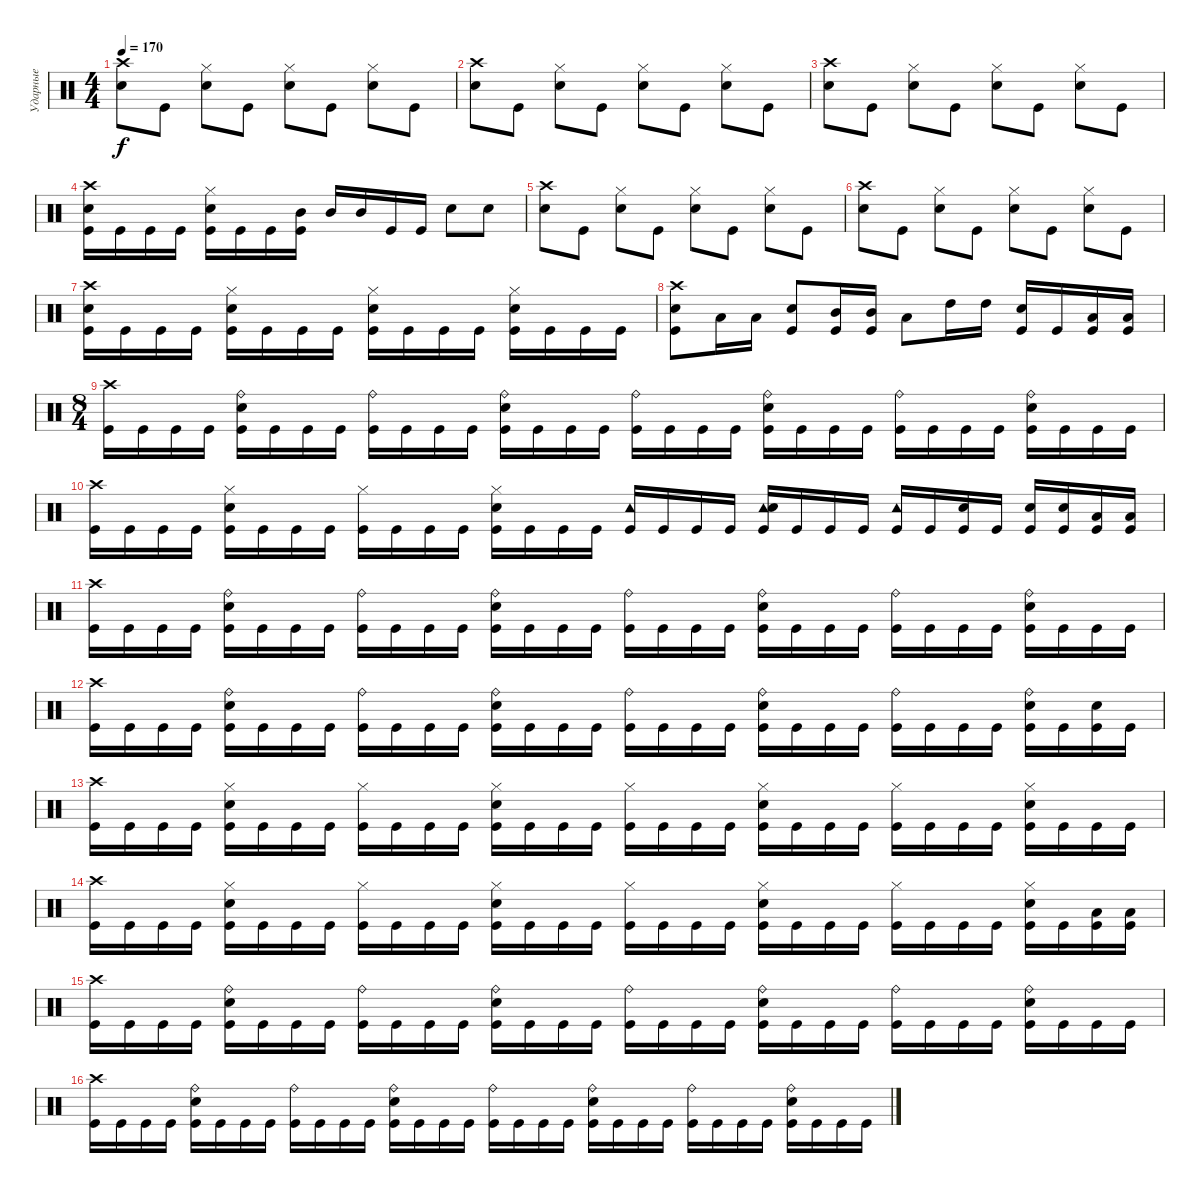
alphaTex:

\track ("Ударные" "Ударные") {instrument percussion}
\staff {score}
\articulation defaults
\ts (4 4)
\tempo 170
\clef neutral
\ks c
("Crash high (hit)" "Electric Snare (hit)").8{dy f} "Kick (hit)".8 ("Hi-Hat (closed)" "Electric Snare (hit)").8 "Kick (hit)".8 ("Hi-Hat (closed)" "Electric Snare (hit)").8 "Kick (hit)".8 ("Hi-Hat (closed)" "Electric Snare (hit)").8 "Kick (hit)".8 |
("Crash high (hit)" "Electric Snare (hit)").8 "Kick (hit)".8 ("Hi-Hat (closed)" "Electric Snare (hit)").8 "Kick (hit)".8 ("Hi-Hat (closed)" "Electric Snare (hit)").8 "Kick (hit)".8 ("Hi-Hat (closed)" "Electric Snare (hit)").8 "Kick (hit)".8 |
("Crash high (hit)" "Electric Snare (hit)").8 "Kick (hit)".8 ("Hi-Hat (closed)" "Electric Snare (hit)").8 "Kick (hit)".8 ("Hi-Hat (closed)" "Electric Snare (hit)").8 "Kick (hit)".8 ("Hi-Hat (closed)" "Electric Snare (hit)").8 "Kick (hit)".8 |
("Crash high (hit)" "Electric Snare (hit)" "Kick (hit)").16 "Kick (hit)".16 "Kick (hit)".16 "Kick (hit)".16 ("Hi-Hat (closed)" "Electric Snare (hit)" "Kick (hit)").16 "Kick (hit)".16 "Kick (hit)".16 ("Mid Tom (hit)" "Kick (hit)").16 "Mid Tom (hit)".16 "Mid Tom (hit)".16 "Kick (hit)".16 "Kick (hit)".16 "Electric Snare (hit)".8 "Electric Snare (hit)".8 |
("Crash high (hit)" "Electric Snare (hit)").8 "Kick (hit)".8 ("Hi-Hat (closed)" "Electric Snare (hit)").8 "Kick (hit)".8 ("Hi-Hat (closed)" "Electric Snare (hit)").8 "Kick (hit)".8 ("Hi-Hat (closed)" "Electric Snare (hit)").8 "Kick (hit)".8 |
("Crash high (hit)" "Electric Snare (hit)").8 "Kick (hit)".8 ("Hi-Hat (closed)" "Electric Snare (hit)").8 "Kick (hit)".8 ("Hi-Hat (closed)" "Electric Snare (hit)").8 "Kick (hit)".8 ("Hi-Hat (closed)" "Electric Snare (hit)").8 "Kick (hit)".8 |
("Crash high (hit)" "Electric Snare (hit)" "Kick (hit)").16 "Kick (hit)".16 "Kick (hit)".16 "Kick (hit)".16 ("Hi-Hat (closed)" "Electric Snare (hit)" "Kick (hit)").16 "Kick (hit)".16 "Kick (hit)".16 "Kick (hit)".16 ("Hi-Hat (closed)" "Electric Snare (hit)" "Kick (hit)").16 "Kick (hit)".16 "Kick (hit)".16 "Kick (hit)".16 ("Hi-Hat (closed)" "Electric Snare (hit)" "Kick (hit)").16 "Kick (hit)".16 "Kick (hit)".16 "Kick (hit)".16 |
("Crash high (hit)" "Electric Snare (hit)" "Kick (hit)").8 "Low Tom (hit)".16 "Low Tom (hit)".16 ("Electric Snare (hit)" "Kick (hit)").8 ("Mid Tom (hit)" "Kick (hit)").16 ("Mid Tom (hit)" "Kick (hit)").16 "Low Tom (hit)".8 "High Tom (hit)".16 "High Tom (hit)".16 ("Electric Snare (hit)" "Kick (hit)").16 "Kick (hit)".16 ("Low Tom (hit)" "Kick (hit)").16 ("Low Tom (hit)" "Kick (hit)").16 |
\ts (8 4)
("Crash high (hit)" "Kick (hit)").16 "Kick (hit)".16 "Kick (hit)".16 "Kick (hit)".16 ("Ride (bell)" "Electric Snare (hit)" "Kick (hit)").16 "Kick (hit)".16 "Kick (hit)".16 "Kick (hit)".16 ("Ride (bell)" "Kick (hit)").16 "Kick (hit)".16 "Kick (hit)".16 "Kick (hit)".16 ("Ride (bell)" "Electric Snare (hit)" "Kick (hit)").16 "Kick (hit)".16 "Kick (hit)".16 "Kick (hit)".16 ("Ride (bell)" "Kick (hit)").16 "Kick (hit)".16 "Kick (hit)".16 "Kick (hit)".16 ("Ride (bell)" "Electric Snare (hit)" "Kick (hit)").16 "Kick (hit)".16 "Kick (hit)".16 "Kick (hit)".16 ("Ride (bell)" "Kick (hit)").16 "Kick (hit)".16 "Kick (hit)".16 "Kick (hit)".16 ("Ride (bell)" "Electric Snare (hit)" "Kick (hit)").16 "Kick (hit)".16 "Kick (hit)".16 "Kick (hit)".16 |
("Crash high (hit)" "Kick (hit)").16 "Kick (hit)".16 "Kick (hit)".16 "Kick (hit)".16 ("Hi-Hat (closed)" "Electric Snare (hit)" "Kick (hit)").16 "Kick (hit)".16 "Kick (hit)".16 "Kick (hit)".16 ("Hi-Hat (closed)" "Kick (hit)").16 "Kick (hit)".16 "Kick (hit)".16 "Kick (hit)".16 ("Hi-Hat (closed)" "Electric Snare (hit)" "Kick (hit)").16 "Kick (hit)".16 "Kick (hit)".16 "Kick (hit)".16 ("Tambourine (hit)" "Kick (hit)").16 "Kick (hit)".16 "Kick (hit)".16 "Kick (hit)".16 ("Tambourine (hit)" "Electric Snare (hit)" "Kick (hit)").16 "Kick (hit)".16 "Kick (hit)".16 "Kick (hit)".16 ("Tambourine (hit)" "Kick (hit)").16 "Kick (hit)".16 ("Electric Snare (hit)" "Kick (hit)").16 "Kick (hit)".16 ("Electric Snare (hit)" "Kick (hit)").16 ("Electric Snare (hit)" "Kick (hit)").16 ("Low Tom (hit)" "Kick (hit)").16 ("Low Tom (hit)" "Kick (hit)").16 |
("Crash high (hit)" "Kick (hit)").16 "Kick (hit)".16 "Kick (hit)".16 "Kick (hit)".16 ("Ride (bell)" "Electric Snare (hit)" "Kick (hit)").16 "Kick (hit)".16 "Kick (hit)".16 "Kick (hit)".16 ("Ride (bell)" "Kick (hit)").16 "Kick (hit)".16 "Kick (hit)".16 "Kick (hit)".16 ("Ride (bell)" "Electric Snare (hit)" "Kick (hit)").16 "Kick (hit)".16 "Kick (hit)".16 "Kick (hit)".16 ("Ride (bell)" "Kick (hit)").16 "Kick (hit)".16 "Kick (hit)".16 "Kick (hit)".16 ("Ride (bell)" "Electric Snare (hit)" "Kick (hit)").16 "Kick (hit)".16 "Kick (hit)".16 "Kick (hit)".16 ("Ride (bell)" "Kick (hit)").16 "Kick (hit)".16 "Kick (hit)".16 "Kick (hit)".16 ("Ride (bell)" "Electric Snare (hit)" "Kick (hit)").16 "Kick (hit)".16 "Kick (hit)".16 "Kick (hit)".16 |
("Crash high (hit)" "Kick (hit)").16 "Kick (hit)".16 "Kick (hit)".16 "Kick (hit)".16 ("Ride (bell)" "Electric Snare (hit)" "Kick (hit)").16 "Kick (hit)".16 "Kick (hit)".16 "Kick (hit)".16 ("Ride (bell)" "Kick (hit)").16 "Kick (hit)".16 "Kick (hit)".16 "Kick (hit)".16 ("Ride (bell)" "Electric Snare (hit)" "Kick (hit)").16 "Kick (hit)".16 "Kick (hit)".16 "Kick (hit)".16 ("Ride (bell)" "Kick (hit)").16 "Kick (hit)".16 "Kick (hit)".16 "Kick (hit)".16 ("Ride (bell)" "Electric Snare (hit)" "Kick (hit)").16 "Kick (hit)".16 "Kick (hit)".16 "Kick (hit)".16 ("Ride (bell)" "Kick (hit)").16 "Kick (hit)".16 "Kick (hit)".16 "Kick (hit)".16 ("Ride (bell)" "Electric Snare (hit)" "Kick (hit)").16 "Kick (hit)".16 ("Electric Snare (hit)" "Kick (hit)").16 "Kick (hit)".16 |
("Crash high (hit)" "Kick (hit)").16 "Kick (hit)".16 "Kick (hit)".16 "Kick (hit)".16 ("Hi-Hat (closed)" "Electric Snare (hit)" "Kick (hit)").16 "Kick (hit)".16 "Kick (hit)".16 "Kick (hit)".16 ("Hi-Hat (closed)" "Kick (hit)").16 "Kick (hit)".16 "Kick (hit)".16 "Kick (hit)".16 ("Hi-Hat (closed)" "Electric Snare (hit)" "Kick (hit)").16 "Kick (hit)".16 "Kick (hit)".16 "Kick (hit)".16 ("Hi-Hat (closed)" "Kick (hit)").16 "Kick (hit)".16 "Kick (hit)".16 "Kick (hit)".16 ("Hi-Hat (closed)" "Electric Snare (hit)" "Kick (hit)").16 "Kick (hit)".16 "Kick (hit)".16 "Kick (hit)".16 ("Hi-Hat (closed)" "Kick (hit)").16 "Kick (hit)".16 "Kick (hit)".16 "Kick (hit)".16 ("Hi-Hat (closed)" "Electric Snare (hit)" "Kick (hit)").16 "Kick (hit)".16 "Kick (hit)".16 "Kick (hit)".16 |
("Crash high (hit)" "Kick (hit)").16 "Kick (hit)".16 "Kick (hit)".16 "Kick (hit)".16 ("Hi-Hat (closed)" "Electric Snare (hit)" "Kick (hit)").16 "Kick (hit)".16 "Kick (hit)".16 "Kick (hit)".16 ("Hi-Hat (closed)" "Kick (hit)").16 "Kick (hit)".16 "Kick (hit)".16 "Kick (hit)".16 ("Hi-Hat (closed)" "Electric Snare (hit)" "Kick (hit)").16 "Kick (hit)".16 "Kick (hit)".16 "Kick (hit)".16 ("Hi-Hat (closed)" "Kick (hit)").16 "Kick (hit)".16 "Kick (hit)".16 "Kick (hit)".16 ("Hi-Hat (closed)" "Electric Snare (hit)" "Kick (hit)").16 "Kick (hit)".16 "Kick (hit)".16 "Kick (hit)".16 ("Hi-Hat (closed)" "Kick (hit)").16 "Kick (hit)".16 "Kick (hit)".16 "Kick (hit)".16 ("Hi-Hat (closed)" "Electric Snare (hit)" "Kick (hit)").16 "Kick (hit)".16 ("Low Tom (hit)" "Kick (hit)").16 ("Low Tom (hit)" "Kick (hit)").16 |
("Crash high (hit)" "Kick (hit)").16 "Kick (hit)".16 "Kick (hit)".16 "Kick (hit)".16 ("Ride (bell)" "Electric Snare (hit)" "Kick (hit)").16 "Kick (hit)".16 "Kick (hit)".16 "Kick (hit)".16 ("Ride (bell)" "Kick (hit)").16 "Kick (hit)".16 "Kick (hit)".16 "Kick (hit)".16 ("Ride (bell)" "Electric Snare (hit)" "Kick (hit)").16 "Kick (hit)".16 "Kick (hit)".16 "Kick (hit)".16 ("Ride (bell)" "Kick (hit)").16 "Kick (hit)".16 "Kick (hit)".16 "Kick (hit)".16 ("Ride (bell)" "Electric Snare (hit)" "Kick (hit)").16 "Kick (hit)".16 "Kick (hit)".16 "Kick (hit)".16 ("Ride (bell)" "Kick (hit)").16 "Kick (hit)".16 "Kick (hit)".16 "Kick (hit)".16 ("Ride (bell)" "Electric Snare (hit)" "Kick (hit)").16 "Kick (hit)".16 "Kick (hit)".16 "Kick (hit)".16 |
("Crash high (hit)" "Kick (hit)").16 "Kick (hit)".16 "Kick (hit)".16 "Kick (hit)".16 ("Ride (bell)" "Electric Snare (hit)" "Kick (hit)").16 "Kick (hit)".16 "Kick (hit)".16 "Kick (hit)".16 ("Ride (bell)" "Kick (hit)").16 "Kick (hit)".16 "Kick (hit)".16 "Kick (hit)".16 ("Ride (bell)" "Electric Snare (hit)" "Kick (hit)").16 "Kick (hit)".16 "Kick (hit)".16 "Kick (hit)".16 ("Ride (bell)" "Kick (hit)").16 "Kick (hit)".16 "Kick (hit)".16 "Kick (hit)".16 ("Ride (bell)" "Electric Snare (hit)" "Kick (hit)").16 "Kick (hit)".16 "Kick (hit)".16 "Kick (hit)".16 ("Ride (bell)" "Kick (hit)").16 "Kick (hit)".16 "Kick (hit)".16 "Kick (hit)".16 ("Ride (bell)" "Electric Snare (hit)" "Kick (hit)").16 "Kick (hit)".16 "Kick (hit)".16 "Kick (hit)".16
